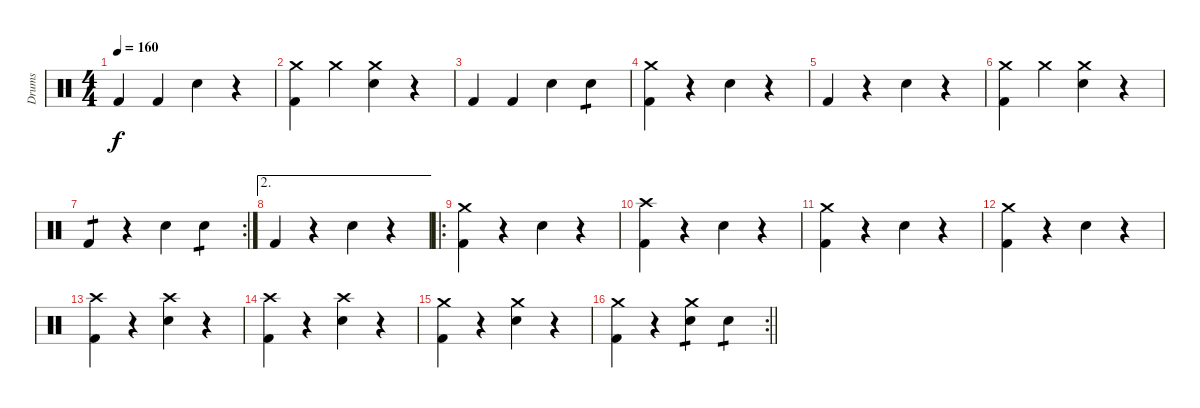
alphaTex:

\track ("Drums" "Drums") {instrument percussion}
\staff {score}
\articulation defaults
\ts (4 4)
\tempo 160
\clef neutral
\ks c "Kick (hit) 2".4{dy f} "Kick (hit) 2".4 "Snare (hit) 2".4
r.4 |
("Kick (hit) 2" "Crash medium (hit)").4 "Crash medium (hit)".4 ("Snare (hit) 2" "Crash medium (hit)").4 r.4 |
"Kick (hit) 2".4 "Kick (hit) 2".4 "Snare (hit) 2".4 "Snare (hit) 2".4{tp 1} |
("Kick (hit) 2" "Crash medium (hit)").4 r.4 "Snare (hit) 2".4 r.4 |
"Kick (hit) 2".4 r.4 "Snare (hit) 2".4 r.4 |
("Kick (hit) 2" "Crash medium (hit)").4 "Crash medium (hit)".4 ("Snare (hit) 2" "Crash medium (hit)").4 r.4 |
\rc 2 "Kick (hit) 2".4{tp 1}
r.4 "Snare (hit) 2".4 "Snare (hit) 2".4{tp 1} |
\ae 2 "Kick (hit) 2".4
r.4 "Snare (hit) 2".4 r.4 |
\ro
("Kick (hit) 2" "Crash medium (hit)").4 r.4 "Snare (hit) 2".4 r.4 |
("Kick (hit) 2" "Crash high (hit)").4 r.4 "Snare (hit) 2".4 r.4 |
("Kick (hit) 2" "Crash medium (hit)").4 r.4 "Snare (hit) 2".4 r.4 |
("Kick (hit) 2" "Crash medium (hit)").4 r.4 "Snare (hit) 2".4 r.4 |
("Kick (hit) 2" "Crash high (hit)").4 r.4 ("Snare (hit) 2" "Crash high (hit)").4 r.4 |
("Kick (hit) 2" "Crash high (hit)").4 r.4 ("Snare (hit) 2" "Crash high (hit)").4 r.4 |
("Kick (hit) 2" "Crash medium (hit)").4 r.4 ("Snare (hit) 2" "Crash medium (hit)").4 r.4 |
\rc 2
\barLineRight lightlight
("Kick (hit) 2" "Crash medium (hit)").4 r.4 ("Snare (hit) 2" "Crash medium (hit)").4{tp 1} "Snare (hit) 2".4{tp 1}
